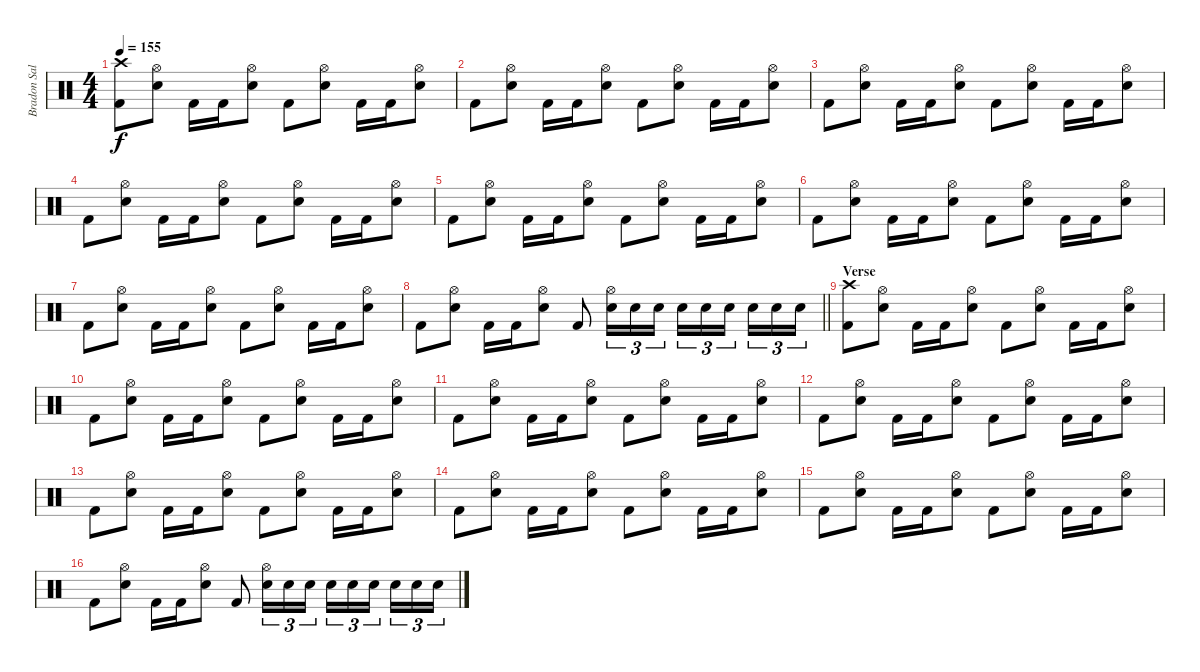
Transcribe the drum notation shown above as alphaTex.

\track ("Bradon Saller" "Bradon Sal") {instrument percussion}
\staff {score}
\articulation defaults
\ts (4 4)
\tempo 155
\clef neutral
\ks c
("Crash high (hit)" "Kick (hit) 2").8{dy f} ("Hi-Hat (open)" "Electric Snare (hit)").8 "Kick (hit) 2".16 "Kick (hit) 2".16 ("Hi-Hat (open)" "Electric Snare (hit)").8 "Kick (hit) 2".8 ("Hi-Hat (open)" "Electric Snare (hit)").8 "Kick (hit) 2".16 "Kick (hit) 2".16 ("Hi-Hat (open)" "Electric Snare (hit)").8 |
"Kick (hit) 2".8 ("Hi-Hat (open)" "Electric Snare (hit)").8 "Kick (hit) 2".16 "Kick (hit) 2".16 ("Hi-Hat (open)" "Electric Snare (hit)").8 "Kick (hit) 2".8 ("Hi-Hat (open)" "Electric Snare (hit)").8 "Kick (hit) 2".16 "Kick (hit) 2".16 ("Hi-Hat (open)" "Electric Snare (hit)").8 |
"Kick (hit) 2".8 ("Hi-Hat (open)" "Electric Snare (hit)").8 "Kick (hit) 2".16 "Kick (hit) 2".16 ("Hi-Hat (open)" "Electric Snare (hit)").8 "Kick (hit) 2".8 ("Hi-Hat (open)" "Electric Snare (hit)").8 "Kick (hit) 2".16 "Kick (hit) 2".16 ("Hi-Hat (open)" "Electric Snare (hit)").8 |
"Kick (hit) 2".8 ("Hi-Hat (open)" "Electric Snare (hit)").8 "Kick (hit) 2".16 "Kick (hit) 2".16 ("Hi-Hat (open)" "Electric Snare (hit)").8 "Kick (hit) 2".8 ("Hi-Hat (open)" "Electric Snare (hit)").8 "Kick (hit) 2".16 "Kick (hit) 2".16 ("Hi-Hat (open)" "Electric Snare (hit)").8 |
"Kick (hit) 2".8 ("Hi-Hat (open)" "Electric Snare (hit)").8 "Kick (hit) 2".16 "Kick (hit) 2".16 ("Hi-Hat (open)" "Electric Snare (hit)").8 "Kick (hit) 2".8 ("Hi-Hat (open)" "Electric Snare (hit)").8 "Kick (hit) 2".16 "Kick (hit) 2".16 ("Hi-Hat (open)" "Electric Snare (hit)").8 |
"Kick (hit) 2".8 ("Hi-Hat (open)" "Electric Snare (hit)").8 "Kick (hit) 2".16 "Kick (hit) 2".16 ("Hi-Hat (open)" "Electric Snare (hit)").8 "Kick (hit) 2".8 ("Hi-Hat (open)" "Electric Snare (hit)").8 "Kick (hit) 2".16 "Kick (hit) 2".16 ("Hi-Hat (open)" "Electric Snare (hit)").8 |
"Kick (hit) 2".8 ("Hi-Hat (open)" "Electric Snare (hit)").8 "Kick (hit) 2".16 "Kick (hit) 2".16 ("Hi-Hat (open)" "Electric Snare (hit)").8 "Kick (hit) 2".8 ("Hi-Hat (open)" "Electric Snare (hit)").8 "Kick (hit) 2".16 "Kick (hit) 2".16 ("Hi-Hat (open)" "Electric Snare (hit)").8 |
\barLineRight lightlight "Kick (hit) 2".8
("Hi-Hat (open)" "Electric Snare (hit)").8 "Kick (hit) 2".16 "Kick (hit) 2".16 ("Hi-Hat (open)" "Electric Snare (hit)").8 "Kick (hit) 2".8 ("Hi-Hat (open)" "Electric Snare (hit)").16{tu (3 2)} "Electric Snare (hit)".16{tu (3 2)} "Electric Snare (hit)".16{tu (3 2)} "Electric Snare (hit)".16{tu (3 2)} "Electric Snare (hit)".16{tu (3 2)} "Electric Snare (hit)".16{tu (3 2) beam splitsecondary} "Electric Snare (hit)".16{tu (3 2)} "Electric Snare (hit)".16{tu (3 2)} "Electric Snare (hit)".16{tu (3 2)} |
\section ("" "Verse")
("Crash high (hit)" "Kick (hit) 2").8 ("Hi-Hat (open)" "Electric Snare (hit)").8 "Kick (hit) 2".16 "Kick (hit) 2".16 ("Hi-Hat (open)" "Electric Snare (hit)").8 "Kick (hit) 2".8 ("Hi-Hat (open)" "Electric Snare (hit)").8 "Kick (hit) 2".16 "Kick (hit) 2".16 ("Hi-Hat (open)" "Electric Snare (hit)").8 |
"Kick (hit) 2".8 ("Hi-Hat (open)" "Electric Snare (hit)").8 "Kick (hit) 2".16 "Kick (hit) 2".16 ("Hi-Hat (open)" "Electric Snare (hit)").8 "Kick (hit) 2".8 ("Hi-Hat (open)" "Electric Snare (hit)").8 "Kick (hit) 2".16 "Kick (hit) 2".16 ("Hi-Hat (open)" "Electric Snare (hit)").8 |
"Kick (hit) 2".8 ("Hi-Hat (open)" "Electric Snare (hit)").8 "Kick (hit) 2".16 "Kick (hit) 2".16 ("Hi-Hat (open)" "Electric Snare (hit)").8 "Kick (hit) 2".8 ("Hi-Hat (open)" "Electric Snare (hit)").8 "Kick (hit) 2".16 "Kick (hit) 2".16 ("Hi-Hat (open)" "Electric Snare (hit)").8 |
"Kick (hit) 2".8 ("Hi-Hat (open)" "Electric Snare (hit)").8 "Kick (hit) 2".16 "Kick (hit) 2".16 ("Hi-Hat (open)" "Electric Snare (hit)").8 "Kick (hit) 2".8 ("Hi-Hat (open)" "Electric Snare (hit)").8 "Kick (hit) 2".16 "Kick (hit) 2".16 ("Hi-Hat (open)" "Electric Snare (hit)").8 |
"Kick (hit) 2".8 ("Hi-Hat (open)" "Electric Snare (hit)").8 "Kick (hit) 2".16 "Kick (hit) 2".16 ("Hi-Hat (open)" "Electric Snare (hit)").8 "Kick (hit) 2".8 ("Hi-Hat (open)" "Electric Snare (hit)").8 "Kick (hit) 2".16 "Kick (hit) 2".16 ("Hi-Hat (open)" "Electric Snare (hit)").8 |
"Kick (hit) 2".8 ("Hi-Hat (open)" "Electric Snare (hit)").8 "Kick (hit) 2".16 "Kick (hit) 2".16 ("Hi-Hat (open)" "Electric Snare (hit)").8 "Kick (hit) 2".8 ("Hi-Hat (open)" "Electric Snare (hit)").8 "Kick (hit) 2".16 "Kick (hit) 2".16 ("Hi-Hat (open)" "Electric Snare (hit)").8 |
"Kick (hit) 2".8 ("Hi-Hat (open)" "Electric Snare (hit)").8 "Kick (hit) 2".16 "Kick (hit) 2".16 ("Hi-Hat (open)" "Electric Snare (hit)").8 "Kick (hit) 2".8 ("Hi-Hat (open)" "Electric Snare (hit)").8 "Kick (hit) 2".16 "Kick (hit) 2".16 ("Hi-Hat (open)" "Electric Snare (hit)").8 |
"Kick (hit) 2".8 ("Hi-Hat (open)" "Electric Snare (hit)").8 "Kick (hit) 2".16 "Kick (hit) 2".16 ("Hi-Hat (open)" "Electric Snare (hit)").8 "Kick (hit) 2".8 ("Hi-Hat (open)" "Electric Snare (hit)").16{tu (3 2)} "Electric Snare (hit)".16{tu (3 2)} "Electric Snare (hit)".16{tu (3 2)} "Electric Snare (hit)".16{tu (3 2)} "Electric Snare (hit)".16{tu (3 2)} "Electric Snare (hit)".16{tu (3 2) beam splitsecondary} "Electric Snare (hit)".16{tu (3 2)} "Electric Snare (hit)".16{tu (3 2)} "Electric Snare (hit)".16{tu (3 2)}
